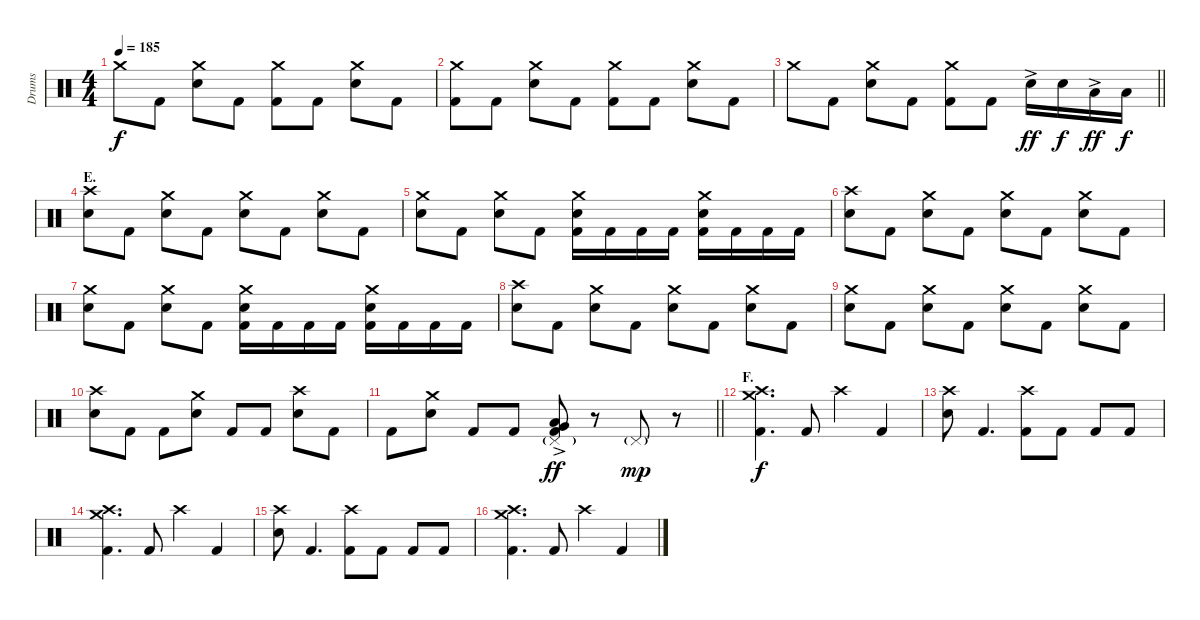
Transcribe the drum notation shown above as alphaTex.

\track ("Drums" "Drums") {instrument percussion}
\staff {score}
\articulation defaults
\ts (4 4)
\tempo 185
\clef neutral
\ks c "Crash medium (hit)".8{dy f} "Kick (hit) 2".8
("Crash medium (hit)" "Electric Snare (hit)").8 "Kick (hit) 2".8 ("Crash medium (hit)" "Kick (hit) 2").8 "Kick (hit) 2".8 ("Crash medium (hit)" "Electric Snare (hit)").8 "Kick (hit) 2".8 |
("Crash medium (hit)" "Kick (hit) 2").8 "Kick (hit) 2".8 ("Crash medium (hit)" "Electric Snare (hit)").8 "Kick (hit) 2".8 ("Crash medium (hit)" "Kick (hit) 2").8 "Kick (hit) 2".8 ("Crash medium (hit)" "Electric Snare (hit)").8 "Kick (hit) 2".8 |
\barLineRight lightlight "Crash medium (hit)".8 "Kick (hit) 2".8
("Crash medium (hit)" "Electric Snare (hit)").8 "Kick (hit) 2".8 ("Crash medium (hit)" "Kick (hit) 2").8 "Kick (hit) 2".8 "Electric Snare (hit)"{ac}.16{dy ff} "Electric Snare (hit)".16{dy f} "Low Tom (hit)"{ac}.16{dy ff} "Low Tom (hit)".16{dy f} |
\section ("" "E.")
("Crash high (hit)" "Electric Snare (hit)").8 "Kick (hit) 2".8 ("Crash medium (hit)" "Electric Snare (hit)").8 "Kick (hit) 2".8 ("Crash medium (hit)" "Electric Snare (hit)").8 "Kick (hit) 2".8 ("Crash medium (hit)" "Electric Snare (hit)").8 "Kick (hit) 2".8 |
("Crash medium (hit)" "Electric Snare (hit)").8 "Kick (hit) 2".8 ("Crash medium (hit)" "Electric Snare (hit)").8 "Kick (hit) 2".8 ("Crash medium (hit)" "Electric Snare (hit)" "Kick (hit) 2").16 "Kick (hit) 2".16 "Kick (hit) 2".16 "Kick (hit) 2".16 ("Crash medium (hit)" "Electric Snare (hit)" "Kick (hit) 2").16 "Kick (hit) 2".16 "Kick (hit) 2".16 "Kick (hit) 2".16 |
("Crash high (hit)" "Electric Snare (hit)").8 "Kick (hit) 2".8 ("Crash medium (hit)" "Electric Snare (hit)").8 "Kick (hit) 2".8 ("Crash medium (hit)" "Electric Snare (hit)").8 "Kick (hit) 2".8 ("Crash medium (hit)" "Electric Snare (hit)").8 "Kick (hit) 2".8 |
("Crash medium (hit)" "Electric Snare (hit)").8 "Kick (hit) 2".8 ("Crash medium (hit)" "Electric Snare (hit)").8 "Kick (hit) 2".8 ("Crash medium (hit)" "Electric Snare (hit)" "Kick (hit) 2").16 "Kick (hit) 2".16 "Kick (hit) 2".16 "Kick (hit) 2".16 ("Crash medium (hit)" "Electric Snare (hit)" "Kick (hit) 2").16 "Kick (hit) 2".16 "Kick (hit) 2".16 "Kick (hit) 2".16 |
("Crash high (hit)" "Electric Snare (hit)").8 "Kick (hit) 2".8 ("Crash medium (hit)" "Electric Snare (hit)").8 "Kick (hit) 2".8 ("Crash medium (hit)" "Electric Snare (hit)").8 "Kick (hit) 2".8 ("Crash medium (hit)" "Electric Snare (hit)").8 "Kick (hit) 2".8 |
("Crash medium (hit)" "Electric Snare (hit)").8 "Kick (hit) 2".8 ("Crash medium (hit)" "Electric Snare (hit)").8 "Kick (hit) 2".8 ("Crash medium (hit)" "Electric Snare (hit)").8 "Kick (hit) 2".8 ("Crash medium (hit)" "Electric Snare (hit)").8 "Kick (hit) 2".8 |
("Crash high (hit)" "Electric Snare (hit)").8 "Kick (hit) 2".8 "Kick (hit) 2".8 ("Crash medium (hit)" "Electric Snare (hit)").8 "Kick (hit) 2".8 "Kick (hit) 2".8 ("Crash high (hit)" "Electric Snare (hit)").8 "Kick (hit) 2".8 |
\barLineRight lightlight "Kick (hit) 2".8
("Crash medium (hit)" "Electric Snare (hit)").8 "Kick (hit) 2".8 "Kick (hit) 2".8 ("Pedal Hi-Hat (hit)"{g} "Very Low Tom (hit)" "Low Floor Tom (hit)"{ac} "Kick (hit) 2").8{dy ff} r.8 "Pedal Hi-Hat (hit)"{g}.8{dy mp} r.8 |
\section ("" "F.")
("Crash medium (hit)" "Crash high (hit)" "Kick (hit) 2").4{d dy f} "Kick (hit) 2".8 "Crash high (hit)".4 "Kick (hit) 2".4 |
("Crash high (hit)" "Electric Snare (hit)").8 "Kick (hit) 2".4{d} ("Crash high (hit)" "Kick (hit) 2").8 "Kick (hit) 2".8 "Kick (hit) 2".8 "Kick (hit) 2".8 |
("Crash medium (hit)" "Crash high (hit)" "Kick (hit) 2").4{d} "Kick (hit) 2".8 "Crash high (hit)".4 "Kick (hit) 2".4 |
("Crash high (hit)" "Electric Snare (hit)").8 "Kick (hit) 2".4{d} ("Crash high (hit)" "Kick (hit) 2").8 "Kick (hit) 2".8 "Kick (hit) 2".8 "Kick (hit) 2".8 |
("Crash medium (hit)" "Crash high (hit)" "Kick (hit) 2").4{d} "Kick (hit) 2".8 "Crash high (hit)".4 "Kick (hit) 2".4
